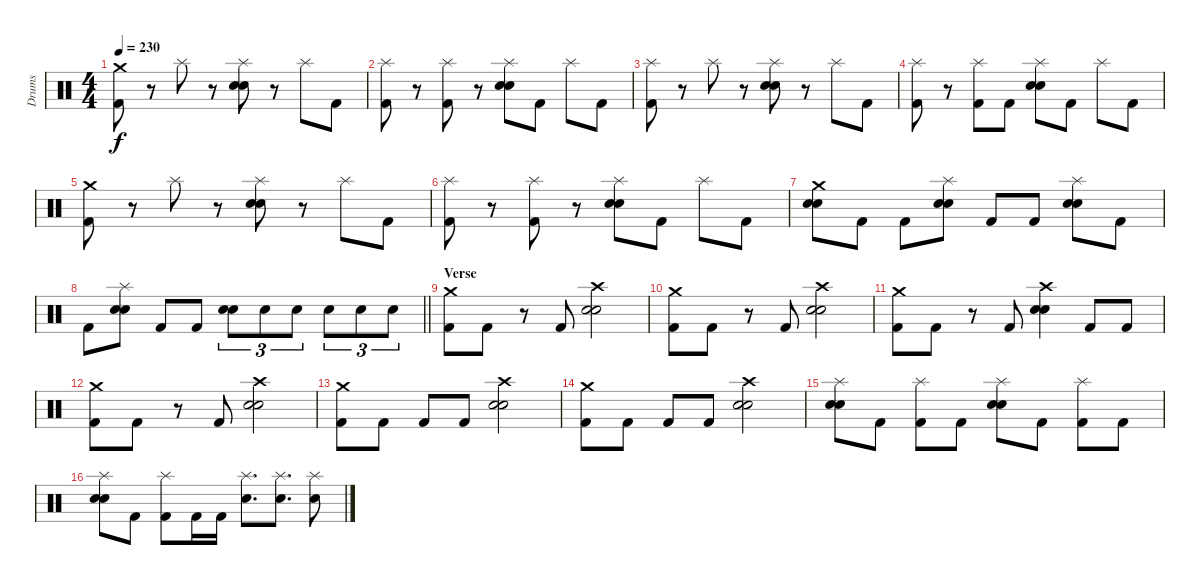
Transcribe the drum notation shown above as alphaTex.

\track ("Drums" "Drums") {instrument percussion}
\staff {score}
\articulation defaults
\ts (4 4)
\tempo 230
\clef neutral
\ks c
("Crash medium (hit)" "Kick (hit) 2").8{dy f} r.8 "Splash (hit)".8 r.8 ("Splash (hit)" "Electric Snare (hit)" "Snare (hit) 2").8 r.8 "Splash (hit)".8 "Kick (hit) 2".8 |
("Splash (hit)" "Kick (hit) 2").8 r.8 ("Splash (hit)" "Kick (hit) 2").8 r.8 ("Splash (hit)" "Electric Snare (hit)" "Snare (hit) 2").8 "Kick (hit) 2".8 "Splash (hit)".8 "Kick (hit) 2".8 |
("Splash (hit)" "Kick (hit) 2").8 r.8 "Splash (hit)".8 r.8 ("Splash (hit)" "Electric Snare (hit)" "Snare (hit) 2").8 r.8 "Splash (hit)".8 "Kick (hit) 2".8 |
("Splash (hit)" "Kick (hit) 2").8 r.8 ("Splash (hit)" "Kick (hit) 2").8 "Kick (hit) 2".8 ("Splash (hit)" "Electric Snare (hit)" "Snare (hit) 2").8 "Kick (hit) 2".8 "Splash (hit)".8 "Kick (hit) 2".8 |
("Crash medium (hit)" "Kick (hit) 2").8 r.8 "Splash (hit)".8 r.8 ("Splash (hit)" "Electric Snare (hit)" "Snare (hit) 2").8 r.8 "Splash (hit)".8 "Kick (hit) 2".8 |
("Splash (hit)" "Kick (hit) 2").8 r.8 ("Splash (hit)" "Kick (hit) 2").8 r.8 ("Splash (hit)" "Electric Snare (hit)" "Snare (hit) 2").8 "Kick (hit) 2".8 "Splash (hit)".8 "Kick (hit) 2".8 |
("Crash medium (hit)" "Electric Snare (hit)" "Snare (hit) 2").8 "Kick (hit) 2".8 "Kick (hit) 2".8 ("Splash (hit)" "Electric Snare (hit)" "Snare (hit) 2").8 "Kick (hit) 2".8 "Kick (hit) 2".8 ("Splash (hit)" "Electric Snare (hit)" "Snare (hit) 2").8 "Kick (hit) 2".8 |
\barLineRight lightlight "Kick (hit) 2".8
("Splash (hit)" "Electric Snare (hit)" "Snare (hit) 2").8 "Kick (hit) 2".8 "Kick (hit) 2".8 ("Electric Snare (hit)" "Snare (hit) 2").8{tu (3 2)} "Electric Snare (hit)".8{tu (3 2)} "Electric Snare (hit)".8{tu (3 2)} "Electric Snare (hit)".8{tu (3 2)} "Electric Snare (hit)".8{tu (3 2)} "Electric Snare (hit)".8{tu (3 2)} |
\section ("" "Verse")
("Crash medium (hit)" "Kick (hit) 2").8 "Kick (hit) 2".8 r.8 "Kick (hit) 2".8 ("Crash high (hit)" "Electric Snare (hit)" "Snare (hit) 2").2 |
("Crash medium (hit)" "Kick (hit) 2").8 "Kick (hit) 2".8 r.8 "Kick (hit) 2".8 ("Crash high (hit)" "Electric Snare (hit)" "Snare (hit) 2").2 |
("Crash medium (hit)" "Kick (hit) 2").8 "Kick (hit) 2".8 r.8 "Kick (hit) 2".8 ("Crash high (hit)" "Electric Snare (hit)" "Snare (hit) 2").4 "Kick (hit) 2".8 "Kick (hit) 2".8 |
("Crash medium (hit)" "Kick (hit) 2").8 "Kick (hit) 2".8 r.8 "Kick (hit) 2".8 ("Crash high (hit)" "Electric Snare (hit)" "Snare (hit) 2").2 |
("Crash medium (hit)" "Kick (hit) 2").8 "Kick (hit) 2".8 "Kick (hit) 2".8 "Kick (hit) 2".8 ("Crash high (hit)" "Electric Snare (hit)" "Snare (hit) 2").2 |
("Crash medium (hit)" "Kick (hit) 2").8 "Kick (hit) 2".8 "Kick (hit) 2".8 "Kick (hit) 2".8 ("Crash high (hit)" "Electric Snare (hit)" "Snare (hit) 2").2 |
("Splash (hit)" "Electric Snare (hit)" "Snare (hit) 2").8 "Kick (hit) 2".8 ("Splash (hit)" "Kick (hit) 2").8 "Kick (hit) 2".8 ("Splash (hit)" "Electric Snare (hit)" "Snare (hit) 2").8 "Kick (hit) 2".8 ("Splash (hit)" "Kick (hit) 2").8 "Kick (hit) 2".8 |
("Splash (hit)" "Electric Snare (hit)" "Snare (hit) 2").8 "Kick (hit) 2".8 ("Splash (hit)" "Kick (hit) 2").8 "Kick (hit) 2".16 "Kick (hit) 2".16 ("Splash (hit)" "Electric Snare (hit)").8{d} ("Splash (hit)" "Electric Snare (hit)").8{d} ("Splash (hit)" "Electric Snare (hit)").8
